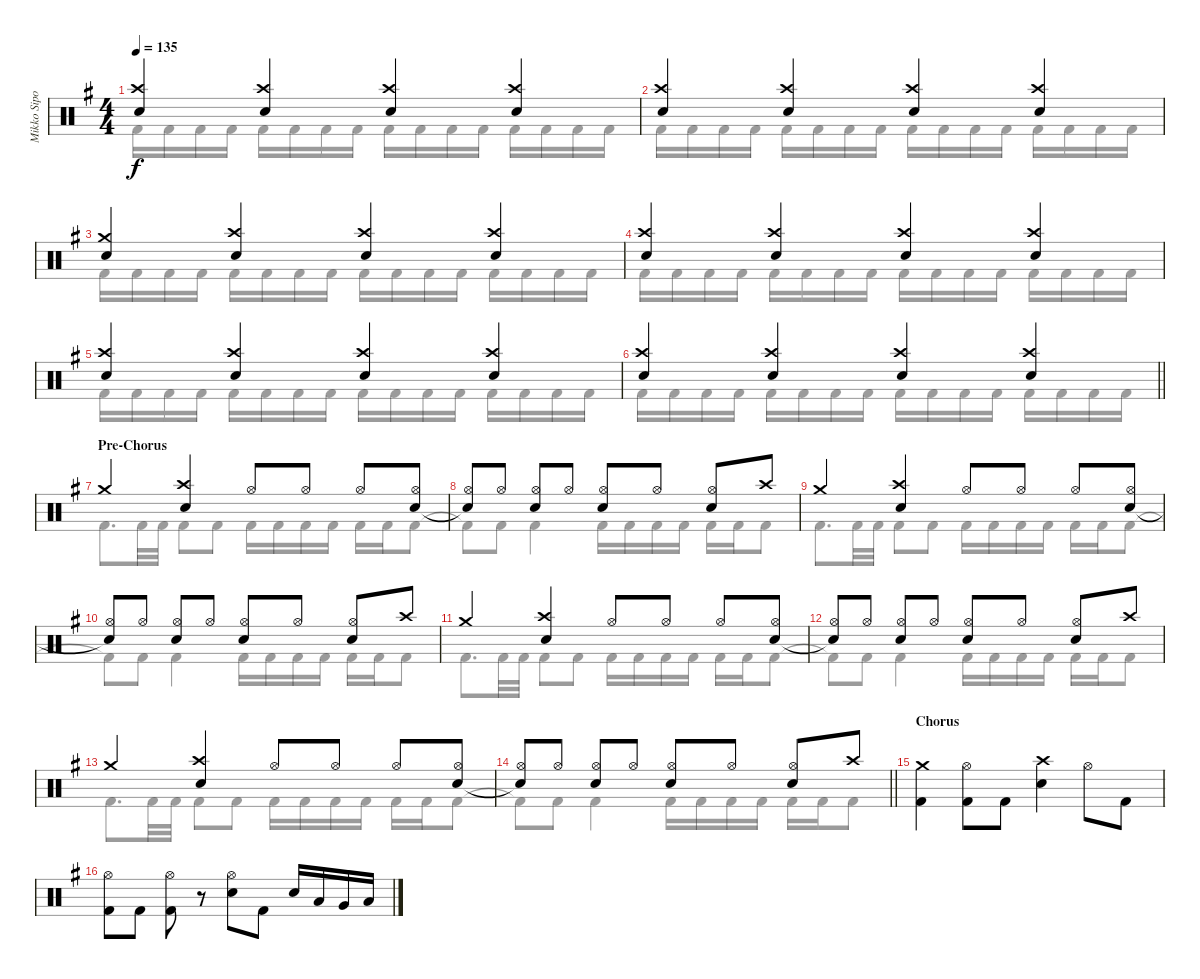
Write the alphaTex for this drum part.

\track ("Mikko Sipola (drums)" "Mikko Sipo") {instrument percussion}
\staff {score}
\articulation defaults
\voice
\ts (4 4)
\tempo 135
\clef neutral
\ks eminor
("Electric Snare (hit)" "Crash high (hit)").4{dy f} ("Electric Snare (hit)" "Crash high (hit)").4 ("Electric Snare (hit)" "Crash high (hit)").4 ("Electric Snare (hit)" "Crash high (hit)").4 |
("Electric Snare (hit)" "Crash high (hit)").4 ("Electric Snare (hit)" "Crash high (hit)").4 ("Electric Snare (hit)" "Crash high (hit)").4 ("Electric Snare (hit)" "Crash high (hit)").4 |
("Electric Snare (hit)" "Crash medium (hit)").4 ("Electric Snare (hit)" "Crash high (hit)").4 ("Electric Snare (hit)" "Crash high (hit)").4 ("Electric Snare (hit)" "Crash high (hit)").4 |
("Electric Snare (hit)" "Crash high (hit)").4 ("Electric Snare (hit)" "Crash high (hit)").4 ("Electric Snare (hit)" "Crash high (hit)").4 ("Electric Snare (hit)" "Crash high (hit)").4 |
("Electric Snare (hit)" "Crash high (hit)").4 ("Electric Snare (hit)" "Crash high (hit)").4 ("Electric Snare (hit)" "Crash high (hit)").4 ("Electric Snare (hit)" "Crash high (hit)").4 |
\barLineRight lightlight
("Electric Snare (hit)" "Crash high (hit)").4 ("Electric Snare (hit)" "Crash high (hit)").4 ("Electric Snare (hit)" "Crash high (hit)").4 ("Electric Snare (hit)" "Crash high (hit)").4 |
\section ("" "Pre-Chorus")
"Crash medium (hit)".4 ("Crash high (hit)" "Electric Snare (hit)").4 "Hi-Hat (open)".8 "Hi-Hat (open)".8 "Hi-Hat (open)".8 ("Hi-Hat (open)" "Electric Snare (hit)").8 |
("Hi-Hat (open)" "Snare (hit)"{t}).8 "Hi-Hat (open)".8 ("Hi-Hat (open)" "Electric Snare (hit)").8 "Hi-Hat (open)".8 ("Hi-Hat (open)" "Electric Snare (hit)").8 "Hi-Hat (open)".8 ("Hi-Hat (open)" "Electric Snare (hit)").8 "Crash high (hit)".8 |
"Crash medium (hit)".4 ("Crash high (hit)" "Electric Snare (hit)").4 "Hi-Hat (open)".8 "Hi-Hat (open)".8 "Hi-Hat (open)".8 ("Hi-Hat (open)" "Electric Snare (hit)").8 |
("Hi-Hat (open)" "Snare (hit)"{t}).8 "Hi-Hat (open)".8 ("Hi-Hat (open)" "Electric Snare (hit)").8 "Hi-Hat (open)".8 ("Hi-Hat (open)" "Electric Snare (hit)").8 "Hi-Hat (open)".8 ("Hi-Hat (open)" "Electric Snare (hit)").8 "Crash high (hit)".8 |
"Crash medium (hit)".4 ("Crash high (hit)" "Electric Snare (hit)").4 "Hi-Hat (open)".8 "Hi-Hat (open)".8 "Hi-Hat (open)".8 ("Hi-Hat (open)" "Electric Snare (hit)").8 |
("Hi-Hat (open)" "Snare (hit)"{t}).8 "Hi-Hat (open)".8 ("Hi-Hat (open)" "Electric Snare (hit)").8 "Hi-Hat (open)".8 ("Hi-Hat (open)" "Electric Snare (hit)").8 "Hi-Hat (open)".8 ("Hi-Hat (open)" "Electric Snare (hit)").8 "Crash high (hit)".8 |
"Crash medium (hit)".4 ("Crash high (hit)" "Electric Snare (hit)").4 "Hi-Hat (open)".8 "Hi-Hat (open)".8 "Hi-Hat (open)".8 ("Hi-Hat (open)" "Electric Snare (hit)").8 |
\barLineRight lightlight
("Hi-Hat (open)" "Snare (hit)"{t}).8 "Hi-Hat (open)".8 ("Hi-Hat (open)" "Electric Snare (hit)").8 "Hi-Hat (open)".8 ("Hi-Hat (open)" "Electric Snare (hit)").8 "Hi-Hat (open)".8 ("Hi-Hat (open)" "Electric Snare (hit)").8 "Crash high (hit)".8 |
\section ("" "Chorus")
("Crash medium (hit)" "Kick (hit) 2").4 ("Hi-Hat (open)" "Kick (hit) 2").8 "Kick (hit) 2".8 ("Electric Snare (hit)" "Crash high (hit)").4 "Hi-Hat (open)".8 "Kick (hit) 2".8 |
("Hi-Hat (open)" "Kick (hit) 2").8 "Kick (hit) 2".8 ("Hi-Hat (open)" "Kick (hit) 2").8 r.8 ("Electric Snare (hit)" "Hi-Hat (open)").8 "Kick (hit) 2".8 "Electric Snare (hit)".16 "Low Tom (hit)".16 "Very Low Tom (hit)".16 "Low Floor Tom (hit)".16
\voice
\clef neutral
\ottava regular
\simile none
\ks eminor "Kick (hit) 2".16{dy f} "Kick (hit) 2".16 "Kick (hit) 2".16 "Kick (hit) 2".16 "Kick (hit) 2".16 "Kick (hit) 2".16 "Kick (hit) 2".16 "Kick (hit) 2".16 "Kick (hit) 2".16 "Kick (hit) 2".16 "Kick (hit) 2".16 "Kick (hit) 2".16 "Kick (hit) 2".16 "Kick (hit) 2".16 "Kick (hit) 2".16 "Kick (hit) 2".16
|
"Kick (hit) 2".16 "Kick (hit) 2".16 "Kick (hit) 2".16 "Kick (hit) 2".16 "Kick (hit) 2".16 "Kick (hit) 2".16 "Kick (hit) 2".16 "Kick (hit) 2".16 "Kick (hit) 2".16 "Kick (hit) 2".16 "Kick (hit) 2".16 "Kick (hit) 2".16 "Kick (hit) 2".16 "Kick (hit) 2".16 "Kick (hit) 2".16 "Kick (hit) 2".16 |
"Kick (hit) 2".16 "Kick (hit) 2".16 "Kick (hit) 2".16 "Kick (hit) 2".16 "Kick (hit) 2".16 "Kick (hit) 2".16 "Kick (hit) 2".16 "Kick (hit) 2".16 "Kick (hit) 2".16 "Kick (hit) 2".16 "Kick (hit) 2".16 "Kick (hit) 2".16 "Kick (hit) 2".16 "Kick (hit) 2".16 "Kick (hit) 2".16 "Kick (hit) 2".16 |
"Kick (hit) 2".16 "Kick (hit) 2".16 "Kick (hit) 2".16 "Kick (hit) 2".16 "Kick (hit) 2".16 "Kick (hit) 2".16 "Kick (hit) 2".16 "Kick (hit) 2".16 "Kick (hit) 2".16 "Kick (hit) 2".16 "Kick (hit) 2".16 "Kick (hit) 2".16 "Kick (hit) 2".16 "Kick (hit) 2".16 "Kick (hit) 2".16 "Kick (hit) 2".16 |
"Kick (hit) 2".16 "Kick (hit) 2".16 "Kick (hit) 2".16 "Kick (hit) 2".16 "Kick (hit) 2".16 "Kick (hit) 2".16 "Kick (hit) 2".16 "Kick (hit) 2".16 "Kick (hit) 2".16 "Kick (hit) 2".16 "Kick (hit) 2".16 "Kick (hit) 2".16 "Kick (hit) 2".16 "Kick (hit) 2".16 "Kick (hit) 2".16 "Kick (hit) 2".16 |
\barLineRight lightlight "Kick (hit) 2".16 "Kick (hit) 2".16 "Kick (hit) 2".16 "Kick (hit) 2".16 "Kick (hit) 2".16 "Kick (hit) 2".16 "Kick (hit) 2".16 "Kick (hit) 2".16 "Kick (hit) 2".16 "Kick (hit) 2".16 "Kick (hit) 2".16 "Kick (hit) 2".16 "Kick (hit) 2".16 "Kick (hit) 2".16 "Kick (hit) 2".16 "Kick (hit) 2".16
|
"Kick (hit) 2".8{d} "Kick (hit) 2".32 "Kick (hit) 2".32 "Kick (hit) 2".8 "Kick (hit) 2".8 "Kick (hit) 2".16 "Kick (hit) 2".16 "Kick (hit) 2".16 "Kick (hit) 2".16 "Kick (hit) 2".16 "Kick (hit) 2".16 "Kick (hit) 2".8 |
"Kick (hit) 2"{t}.8 "Kick (hit) 2".8 "Kick (hit) 2".4 "Kick (hit) 2".16 "Kick (hit) 2".16 "Kick (hit) 2".16 "Kick (hit) 2".16 "Kick (hit) 2".16 "Kick (hit) 2".16 "Kick (hit) 2".8 |
"Kick (hit) 2".8{d} "Kick (hit) 2".32 "Kick (hit) 2".32 "Kick (hit) 2".8 "Kick (hit) 2".8 "Kick (hit) 2".16 "Kick (hit) 2".16 "Kick (hit) 2".16 "Kick (hit) 2".16 "Kick (hit) 2".16 "Kick (hit) 2".16 "Kick (hit) 2".8 |
"Kick (hit) 2"{t}.8 "Kick (hit) 2".8 "Kick (hit) 2".4 "Kick (hit) 2".16 "Kick (hit) 2".16 "Kick (hit) 2".16 "Kick (hit) 2".16 "Kick (hit) 2".16 "Kick (hit) 2".16 "Kick (hit) 2".8 |
"Kick (hit) 2".8{d} "Kick (hit) 2".32 "Kick (hit) 2".32 "Kick (hit) 2".8 "Kick (hit) 2".8 "Kick (hit) 2".16 "Kick (hit) 2".16 "Kick (hit) 2".16 "Kick (hit) 2".16 "Kick (hit) 2".16 "Kick (hit) 2".16 "Kick (hit) 2".8 |
"Kick (hit) 2"{t}.8 "Kick (hit) 2".8 "Kick (hit) 2".4 "Kick (hit) 2".16 "Kick (hit) 2".16 "Kick (hit) 2".16 "Kick (hit) 2".16 "Kick (hit) 2".16 "Kick (hit) 2".16 "Kick (hit) 2".8 |
"Kick (hit) 2".8{d} "Kick (hit) 2".32 "Kick (hit) 2".32 "Kick (hit) 2".8 "Kick (hit) 2".8 "Kick (hit) 2".16 "Kick (hit) 2".16 "Kick (hit) 2".16 "Kick (hit) 2".16 "Kick (hit) 2".16 "Kick (hit) 2".16 "Kick (hit) 2".8 |
\barLineRight lightlight "Kick (hit) 2"{t}.8 "Kick (hit) 2".8 "Kick (hit) 2".4 "Kick (hit) 2".16 "Kick (hit) 2".16 "Kick (hit) 2".16 "Kick (hit) 2".16 "Kick (hit) 2".16 "Kick (hit) 2".16 "Kick (hit) 2".8
|
|
